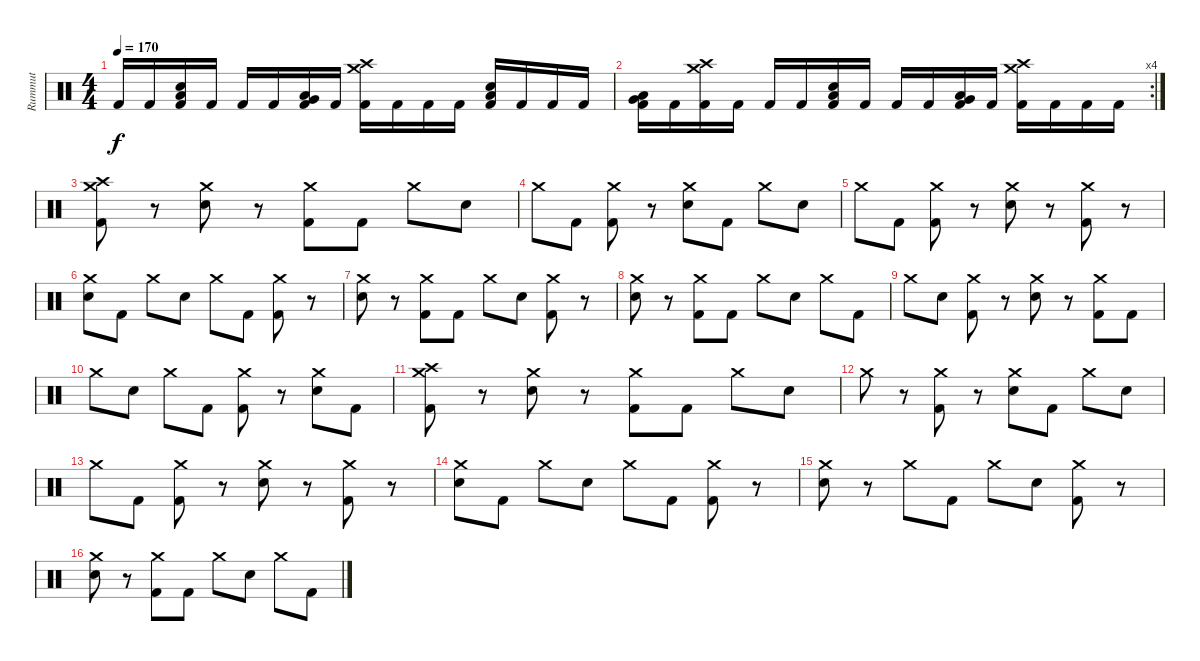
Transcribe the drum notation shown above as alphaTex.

\track ("Rummut" "Rummut") {instrument percussion}
\staff {score}
\articulation defaults
\ts (4 4)
\tempo 170
\clef neutral
\ks c "Kick (hit) 2".16{dy f} "Kick (hit) 2".16
("Low Floor Tom (hit)" "Electric Snare (hit)" "Kick (hit) 2").16 "Kick (hit) 2".16 "Kick (hit) 2".16 "Kick (hit) 2".16 ("Very Low Tom (hit)" "Low Floor Tom (hit)" "Kick (hit) 2").16 "Kick (hit) 2".16 ("Crash medium (hit)" "Crash high (hit)" "Kick (hit) 2").16 "Kick (hit) 2".16 "Kick (hit) 2".16 "Kick (hit) 2".16 ("Low Floor Tom (hit)" "Electric Snare (hit)" "Kick (hit) 2").16 "Kick (hit) 2".16 "Kick (hit) 2".16 "Kick (hit) 2".16 |
\rc 4
("Very Low Tom (hit)" "Low Floor Tom (hit)" "Kick (hit) 2").16 "Kick (hit) 2".16 ("Crash medium (hit)" "Crash high (hit)" "Kick (hit) 2").16 "Kick (hit) 2".16 "Kick (hit) 2".16 "Kick (hit) 2".16 ("Low Floor Tom (hit)" "Electric Snare (hit)" "Kick (hit) 2").16 "Kick (hit) 2".16 "Kick (hit) 2".16 "Kick (hit) 2".16 ("Very Low Tom (hit)" "Low Floor Tom (hit)" "Kick (hit) 2").16 "Kick (hit) 2".16 ("Crash medium (hit)" "Crash high (hit)" "Kick (hit) 2").16 "Kick (hit) 2".16 "Kick (hit) 2".16 "Kick (hit) 2".16 |
("Crash medium (hit)" "Crash high (hit)" "Kick (hit) 2").8 r.8 ("Crash medium (hit)" "Electric Snare (hit)").8 r.8 ("Crash medium (hit)" "Kick (hit) 2").8 "Kick (hit) 2".8 "Crash medium (hit)".8 "Electric Snare (hit)".8 |
"Crash medium (hit)".8 "Kick (hit) 2".8 ("Crash medium (hit)" "Kick (hit) 2").8 r.8 ("Crash medium (hit)" "Electric Snare (hit)").8 "Kick (hit) 2".8 "Crash medium (hit)".8 "Electric Snare (hit)".8 |
"Crash medium (hit)".8 "Kick (hit) 2".8 ("Crash medium (hit)" "Kick (hit) 2").8 r.8 ("Crash medium (hit)" "Electric Snare (hit)").8 r.8 ("Crash medium (hit)" "Kick (hit) 2").8 r.8 |
("Crash medium (hit)" "Electric Snare (hit)").8 "Kick (hit) 2".8 "Crash medium (hit)".8 "Electric Snare (hit)".8 "Crash medium (hit)".8 "Kick (hit) 2".8 ("Crash medium (hit)" "Kick (hit) 2").8 r.8 |
("Crash medium (hit)" "Electric Snare (hit)").8 r.8 ("Crash medium (hit)" "Kick (hit) 2").8 "Kick (hit) 2".8 "Crash medium (hit)".8 "Electric Snare (hit)".8 ("Crash medium (hit)" "Kick (hit) 2").8 r.8 |
("Crash medium (hit)" "Electric Snare (hit)").8 r.8 ("Crash medium (hit)" "Kick (hit) 2").8 "Kick (hit) 2".8 "Crash medium (hit)".8 "Electric Snare (hit)".8 "Crash medium (hit)".8 "Kick (hit) 2".8 |
"Crash medium (hit)".8 "Electric Snare (hit)".8 ("Crash medium (hit)" "Kick (hit) 2").8 r.8 ("Crash medium (hit)" "Electric Snare (hit)").8 r.8 ("Crash medium (hit)" "Kick (hit) 2").8 "Kick (hit) 2".8 |
"Crash medium (hit)".8 "Electric Snare (hit)".8 "Crash medium (hit)".8 "Kick (hit) 2".8 ("Crash medium (hit)" "Kick (hit) 2").8 r.8 ("Crash medium (hit)" "Electric Snare (hit)").8 "Kick (hit) 2".8 |
("Crash medium (hit)" "Crash high (hit)" "Kick (hit) 2").8 r.8 ("Crash medium (hit)" "Electric Snare (hit)").8 r.8 ("Crash medium (hit)" "Kick (hit) 2").8 "Kick (hit) 2".8 "Crash medium (hit)".8 "Electric Snare (hit)".8 |
"Crash medium (hit)".8 r.8 ("Crash medium (hit)" "Kick (hit) 2").8 r.8 ("Crash medium (hit)" "Electric Snare (hit)").8 "Kick (hit) 2".8 "Crash medium (hit)".8 "Electric Snare (hit)".8 |
"Crash medium (hit)".8 "Kick (hit) 2".8 ("Crash medium (hit)" "Kick (hit) 2").8 r.8 ("Crash medium (hit)" "Electric Snare (hit)").8 r.8 ("Crash medium (hit)" "Kick (hit) 2").8 r.8 |
("Crash medium (hit)" "Electric Snare (hit)").8 "Kick (hit) 2".8 "Crash medium (hit)".8 "Electric Snare (hit)".8 "Crash medium (hit)".8 "Kick (hit) 2".8 ("Crash medium (hit)" "Kick (hit) 2").8 r.8 |
("Crash medium (hit)" "Electric Snare (hit)").8 r.8 "Crash medium (hit)".8 "Kick (hit) 2".8 "Crash medium (hit)".8 "Electric Snare (hit)".8 ("Crash medium (hit)" "Kick (hit) 2").8 r.8 |
("Crash medium (hit)" "Electric Snare (hit)").8 r.8 ("Crash medium (hit)" "Kick (hit) 2").8 "Kick (hit) 2".8 "Crash medium (hit)".8 "Electric Snare (hit)".8 "Crash medium (hit)".8 "Kick (hit) 2".8
